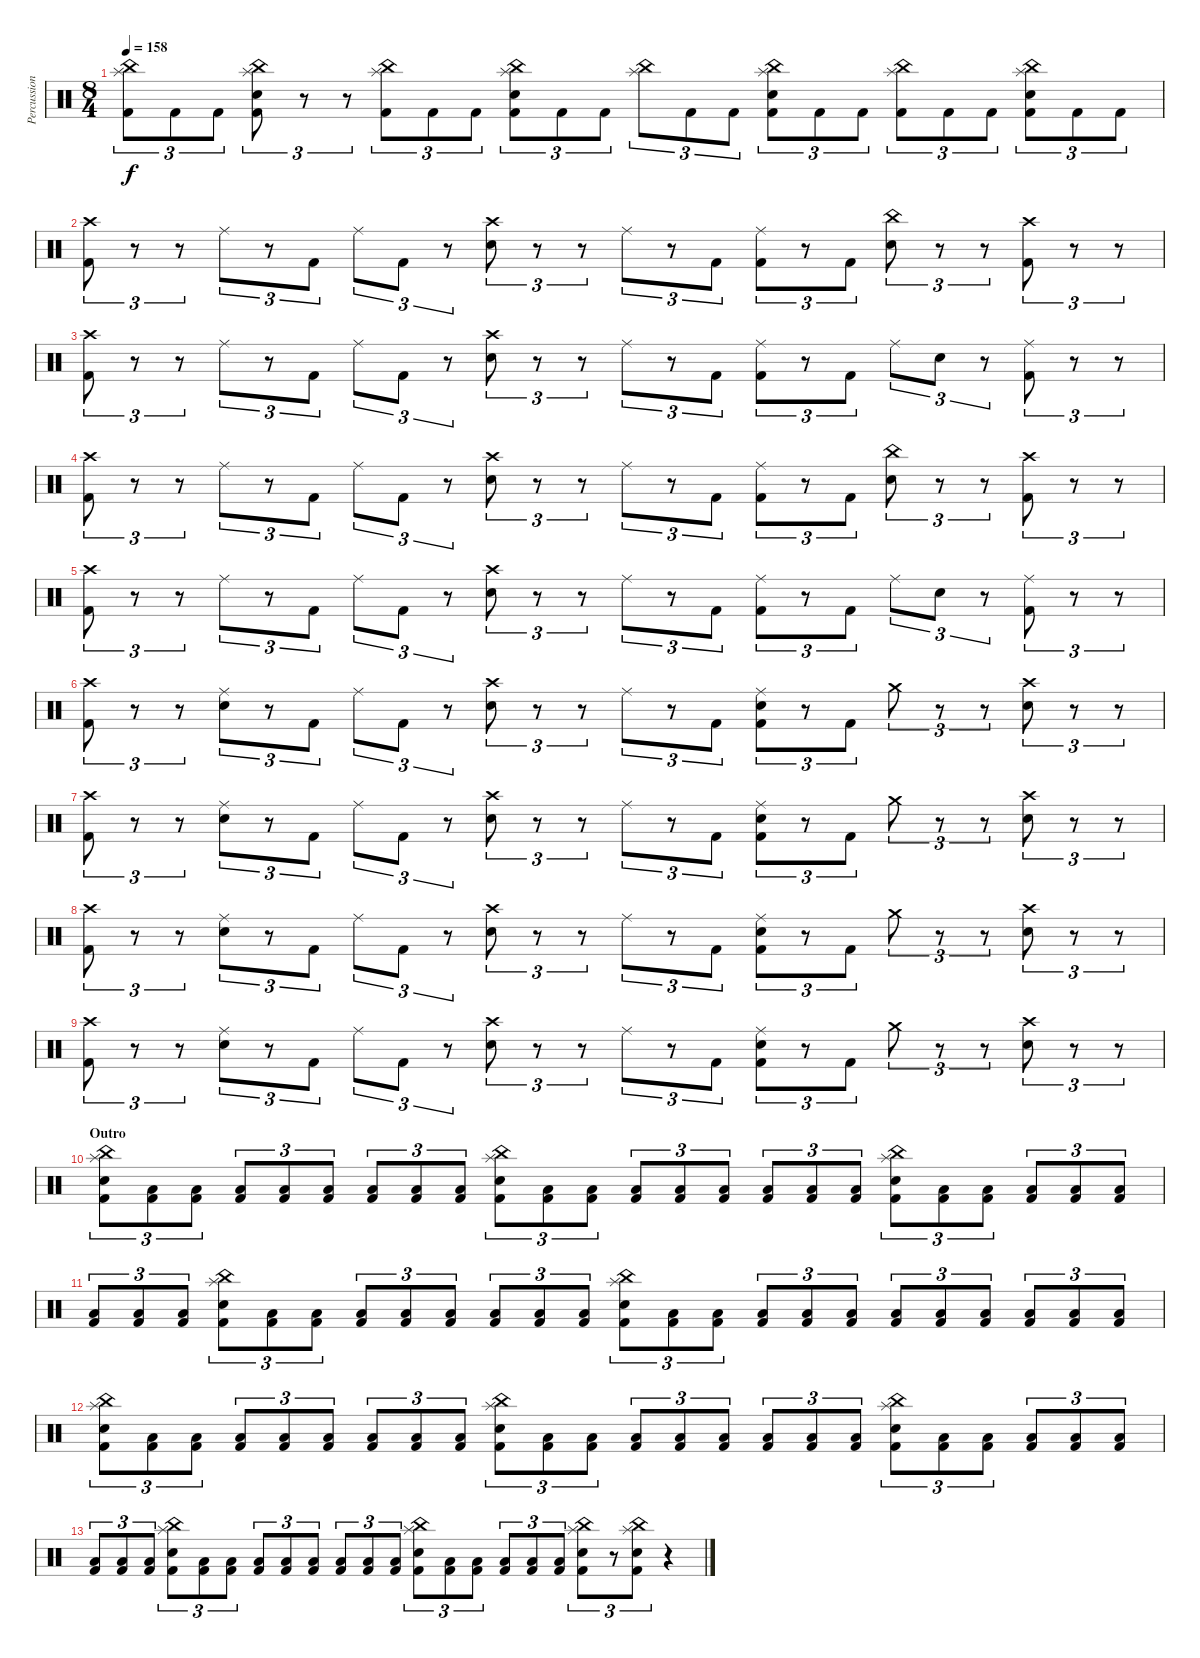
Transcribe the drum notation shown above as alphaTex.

\track ("Percussion" "Percussion") {instrument percussion}
\staff {score}
\articulation defaults
\ts (8 4)
\tempo 158
\clef neutral
\ks c
("China (hit)" "Splash (hit)" "Kick (hit) 2").8{tu (3 2) dy f} "Kick (hit) 2".8{tu (3 2)} "Kick (hit) 2".8{tu (3 2)} ("China (hit)" "Splash (hit)" "Electric Snare (hit)" "Kick (hit) 2").8{tu (3 2)} r.8{tu (3 2)} r.8{tu (3 2)} ("China (hit)" "Splash (hit)" "Kick (hit) 2").8{tu (3 2)} "Kick (hit) 2".8{tu (3 2)} "Kick (hit) 2".8{tu (3 2)} ("China (hit)" "Splash (hit)" "Electric Snare (hit)" "Kick (hit) 2").8{tu (3 2)} "Kick (hit) 2".8{tu (3 2)} "Kick (hit) 2".8{tu (3 2)} ("China (hit)" "Splash (hit)").8{tu (3 2)} "Kick (hit) 2".8{tu (3 2)} "Kick (hit) 2".8{tu (3 2)} ("China (hit)" "Splash (hit)" "Electric Snare (hit)" "Kick (hit) 2").8{tu (3 2)} "Kick (hit) 2".8{tu (3 2)} "Kick (hit) 2".8{tu (3 2)} ("China (hit)" "Splash (hit)" "Kick (hit) 2").8{tu (3 2)} "Kick (hit) 2".8{tu (3 2)} "Kick (hit) 2".8{tu (3 2)} ("China (hit)" "Splash (hit)" "Electric Snare (hit)" "Kick (hit) 2").8{tu (3 2)} "Kick (hit) 2".8{tu (3 2)} "Kick (hit) 2".8{tu (3 2)} |
("Crash high (hit)" "Kick (hit) 2").8{tu (3 2)} r.8{tu (3 2)} r.8{tu (3 2)} "Ride (middle)".8{tu (3 2)} r.8{tu (3 2)} "Kick (hit) 2".8{tu (3 2)} "Ride (middle)".8{tu (3 2)} "Kick (hit) 2".8{tu (3 2)} r.8{tu (3 2)} ("Crash high (hit)" "Electric Snare (hit)").8{tu (3 2)} r.8{tu (3 2)} r.8{tu (3 2)} "Ride (middle)".8{tu (3 2)} r.8{tu (3 2)} "Kick (hit) 2".8{tu (3 2)} ("Ride (middle)" "Kick (hit) 2").8{tu (3 2)} r.8{tu (3 2)} "Kick (hit) 2".8{tu (3 2)} ("China (hit)" "Electric Snare (hit)").8{tu (3 2)} r.8{tu (3 2)} r.8{tu (3 2)} ("Crash high (hit)" "Kick (hit) 2").8{tu (3 2)} r.8{tu (3 2)} r.8{tu (3 2)} |
("Crash high (hit)" "Kick (hit) 2").8{tu (3 2)} r.8{tu (3 2)} r.8{tu (3 2)} "Ride (middle)".8{tu (3 2)} r.8{tu (3 2)} "Kick (hit) 2".8{tu (3 2)} "Ride (middle)".8{tu (3 2)} "Kick (hit) 2".8{tu (3 2)} r.8{tu (3 2)} ("Crash high (hit)" "Electric Snare (hit)").8{tu (3 2)} r.8{tu (3 2)} r.8{tu (3 2)} "Ride (middle)".8{tu (3 2)} r.8{tu (3 2)} "Kick (hit) 2".8{tu (3 2)} ("Ride (middle)" "Kick (hit) 2").8{tu (3 2)} r.8{tu (3 2)} "Kick (hit) 2".8{tu (3 2)} "Ride (middle)".8{tu (3 2)} "Electric Snare (hit)".8{tu (3 2)} r.8{tu (3 2)} ("Ride (middle)" "Kick (hit) 2").8{tu (3 2)} r.8{tu (3 2)} r.8{tu (3 2)} |
("Crash high (hit)" "Kick (hit) 2").8{tu (3 2)} r.8{tu (3 2)} r.8{tu (3 2)} "Ride (middle)".8{tu (3 2)} r.8{tu (3 2)} "Kick (hit) 2".8{tu (3 2)} "Ride (middle)".8{tu (3 2)} "Kick (hit) 2".8{tu (3 2)} r.8{tu (3 2)} ("Crash high (hit)" "Electric Snare (hit)").8{tu (3 2)} r.8{tu (3 2)} r.8{tu (3 2)} "Ride (middle)".8{tu (3 2)} r.8{tu (3 2)} "Kick (hit) 2".8{tu (3 2)} ("Ride (middle)" "Kick (hit) 2").8{tu (3 2)} r.8{tu (3 2)} "Kick (hit) 2".8{tu (3 2)} ("China (hit)" "Electric Snare (hit)").8{tu (3 2)} r.8{tu (3 2)} r.8{tu (3 2)} ("Crash high (hit)" "Kick (hit) 2").8{tu (3 2)} r.8{tu (3 2)} r.8{tu (3 2)} |
("Crash high (hit)" "Kick (hit) 2").8{tu (3 2)} r.8{tu (3 2)} r.8{tu (3 2)} "Ride (middle)".8{tu (3 2)} r.8{tu (3 2)} "Kick (hit) 2".8{tu (3 2)} "Ride (middle)".8{tu (3 2)} "Kick (hit) 2".8{tu (3 2)} r.8{tu (3 2)} ("Crash high (hit)" "Electric Snare (hit)").8{tu (3 2)} r.8{tu (3 2)} r.8{tu (3 2)} "Ride (middle)".8{tu (3 2)} r.8{tu (3 2)} "Kick (hit) 2".8{tu (3 2)} ("Ride (middle)" "Kick (hit) 2").8{tu (3 2)} r.8{tu (3 2)} "Kick (hit) 2".8{tu (3 2)} "Ride (middle)".8{tu (3 2)} "Electric Snare (hit)".8{tu (3 2)} r.8{tu (3 2)} ("Ride (middle)" "Kick (hit) 2").8{tu (3 2)} r.8{tu (3 2)} r.8{tu (3 2)} |
("Crash high (hit)" "Kick (hit) 2").8{tu (3 2)} r.8{tu (3 2)} r.8{tu (3 2)} ("Ride (middle)" "Electric Snare (hit)").8{tu (3 2)} r.8{tu (3 2)} "Kick (hit) 2".8{tu (3 2)} "Ride (middle)".8{tu (3 2)} "Kick (hit) 2".8{tu (3 2)} r.8{tu (3 2)} ("Crash high (hit)" "Electric Snare (hit)").8{tu (3 2)} r.8{tu (3 2)} r.8{tu (3 2)} "Ride (middle)".8{tu (3 2)} r.8{tu (3 2)} "Kick (hit) 2".8{tu (3 2)} ("Ride (middle)" "Electric Snare (hit)" "Kick (hit) 2").8{tu (3 2)} r.8{tu (3 2)} "Kick (hit) 2".8{tu (3 2)} "Crash medium (hit)".8{tu (3 2)} r.8{tu (3 2)} r.8{tu (3 2)} ("Crash high (hit)" "Electric Snare (hit)").8{tu (3 2)} r.8{tu (3 2)} r.8{tu (3 2)} |
("Crash high (hit)" "Kick (hit) 2").8{tu (3 2)} r.8{tu (3 2)} r.8{tu (3 2)} ("Ride (middle)" "Electric Snare (hit)").8{tu (3 2)} r.8{tu (3 2)} "Kick (hit) 2".8{tu (3 2)} "Ride (middle)".8{tu (3 2)} "Kick (hit) 2".8{tu (3 2)} r.8{tu (3 2)} ("Crash high (hit)" "Electric Snare (hit)").8{tu (3 2)} r.8{tu (3 2)} r.8{tu (3 2)} "Ride (middle)".8{tu (3 2)} r.8{tu (3 2)} "Kick (hit) 2".8{tu (3 2)} ("Ride (middle)" "Electric Snare (hit)" "Kick (hit) 2").8{tu (3 2)} r.8{tu (3 2)} "Kick (hit) 2".8{tu (3 2)} "Crash medium (hit)".8{tu (3 2)} r.8{tu (3 2)} r.8{tu (3 2)} ("Crash high (hit)" "Electric Snare (hit)").8{tu (3 2)} r.8{tu (3 2)} r.8{tu (3 2)} |
("Crash high (hit)" "Kick (hit) 2").8{tu (3 2)} r.8{tu (3 2)} r.8{tu (3 2)} ("Ride (middle)" "Electric Snare (hit)").8{tu (3 2)} r.8{tu (3 2)} "Kick (hit) 2".8{tu (3 2)} "Ride (middle)".8{tu (3 2)} "Kick (hit) 2".8{tu (3 2)} r.8{tu (3 2)} ("Crash high (hit)" "Electric Snare (hit)").8{tu (3 2)} r.8{tu (3 2)} r.8{tu (3 2)} "Ride (middle)".8{tu (3 2)} r.8{tu (3 2)} "Kick (hit) 2".8{tu (3 2)} ("Ride (middle)" "Electric Snare (hit)" "Kick (hit) 2").8{tu (3 2)} r.8{tu (3 2)} "Kick (hit) 2".8{tu (3 2)} "Crash medium (hit)".8{tu (3 2)} r.8{tu (3 2)} r.8{tu (3 2)} ("Crash high (hit)" "Electric Snare (hit)").8{tu (3 2)} r.8{tu (3 2)} r.8{tu (3 2)} |
("Crash high (hit)" "Kick (hit) 2").8{tu (3 2)} r.8{tu (3 2)} r.8{tu (3 2)} ("Ride (middle)" "Electric Snare (hit)").8{tu (3 2)} r.8{tu (3 2)} "Kick (hit) 2".8{tu (3 2)} "Ride (middle)".8{tu (3 2)} "Kick (hit) 2".8{tu (3 2)} r.8{tu (3 2)} ("Crash high (hit)" "Electric Snare (hit)").8{tu (3 2)} r.8{tu (3 2)} r.8{tu (3 2)} "Ride (middle)".8{tu (3 2)} r.8{tu (3 2)} "Kick (hit) 2".8{tu (3 2)} ("Ride (middle)" "Electric Snare (hit)" "Kick (hit) 2").8{tu (3 2)} r.8{tu (3 2)} "Kick (hit) 2".8{tu (3 2)} "Crash medium (hit)".8{tu (3 2)} r.8{tu (3 2)} r.8{tu (3 2)} ("Crash high (hit)" "Electric Snare (hit)").8{tu (3 2)} r.8{tu (3 2)} r.8{tu (3 2)} |
\section ("" "Outro")
("China (hit)" "Splash (hit)" "Electric Snare (hit)" "Kick (hit) 2").8{tu (3 2)} ("Low Floor Tom (hit)" "Kick (hit) 2").8{tu (3 2)} ("Low Floor Tom (hit)" "Kick (hit) 2").8{tu (3 2)} ("Low Floor Tom (hit)" "Kick (hit) 2").8{tu (3 2)} ("Low Floor Tom (hit)" "Kick (hit) 2").8{tu (3 2)} ("Low Floor Tom (hit)" "Kick (hit) 2").8{tu (3 2)} ("Low Floor Tom (hit)" "Kick (hit) 2").8{tu (3 2)} ("Low Floor Tom (hit)" "Kick (hit) 2").8{tu (3 2)} ("Low Floor Tom (hit)" "Kick (hit) 2").8{tu (3 2)} ("China (hit)" "Splash (hit)" "Electric Snare (hit)" "Kick (hit) 2").8{tu (3 2)} ("Low Floor Tom (hit)" "Kick (hit) 2").8{tu (3 2)} ("Low Floor Tom (hit)" "Kick (hit) 2").8{tu (3 2)} ("Low Floor Tom (hit)" "Kick (hit) 2").8{tu (3 2)} ("Low Floor Tom (hit)" "Kick (hit) 2").8{tu (3 2)} ("Low Floor Tom (hit)" "Kick (hit) 2").8{tu (3 2)} ("Low Floor Tom (hit)" "Kick (hit) 2").8{tu (3 2)} ("Low Floor Tom (hit)" "Kick (hit) 2").8{tu (3 2)} ("Low Floor Tom (hit)" "Kick (hit) 2").8{tu (3 2)} ("China (hit)" "Splash (hit)" "Electric Snare (hit)" "Kick (hit) 2").8{tu (3 2)} ("Low Floor Tom (hit)" "Kick (hit) 2").8{tu (3 2)} ("Low Floor Tom (hit)" "Kick (hit) 2").8{tu (3 2)} ("Low Floor Tom (hit)" "Kick (hit) 2").8{tu (3 2)} ("Low Floor Tom (hit)" "Kick (hit) 2").8{tu (3 2)} ("Low Floor Tom (hit)" "Kick (hit) 2").8{tu (3 2)} |
("Low Floor Tom (hit)" "Kick (hit) 2").8{tu (3 2)} ("Low Floor Tom (hit)" "Kick (hit) 2").8{tu (3 2)} ("Low Floor Tom (hit)" "Kick (hit) 2").8{tu (3 2)} ("China (hit)" "Splash (hit)" "Electric Snare (hit)" "Kick (hit) 2").8{tu (3 2)} ("Low Floor Tom (hit)" "Kick (hit) 2").8{tu (3 2)} ("Low Floor Tom (hit)" "Kick (hit) 2").8{tu (3 2)} ("Low Floor Tom (hit)" "Kick (hit) 2").8{tu (3 2)} ("Low Floor Tom (hit)" "Kick (hit) 2").8{tu (3 2)} ("Low Floor Tom (hit)" "Kick (hit) 2").8{tu (3 2)} ("Low Floor Tom (hit)" "Kick (hit) 2").8{tu (3 2)} ("Low Floor Tom (hit)" "Kick (hit) 2").8{tu (3 2)} ("Low Floor Tom (hit)" "Kick (hit) 2").8{tu (3 2)} ("China (hit)" "Splash (hit)" "Electric Snare (hit)" "Kick (hit) 2").8{tu (3 2)} ("Low Floor Tom (hit)" "Kick (hit) 2").8{tu (3 2)} ("Low Floor Tom (hit)" "Kick (hit) 2").8{tu (3 2)} ("Low Floor Tom (hit)" "Kick (hit) 2").8{tu (3 2)} ("Low Floor Tom (hit)" "Kick (hit) 2").8{tu (3 2)} ("Low Floor Tom (hit)" "Kick (hit) 2").8{tu (3 2)} ("Low Floor Tom (hit)" "Kick (hit) 2").8{tu (3 2)} ("Low Floor Tom (hit)" "Kick (hit) 2").8{tu (3 2)} ("Low Floor Tom (hit)" "Kick (hit) 2").8{tu (3 2)} ("Low Floor Tom (hit)" "Kick (hit) 2").8{tu (3 2)} ("Low Floor Tom (hit)" "Kick (hit) 2").8{tu (3 2)} ("Low Floor Tom (hit)" "Kick (hit) 2").8{tu (3 2)} |
("China (hit)" "Splash (hit)" "Electric Snare (hit)" "Kick (hit) 2").8{tu (3 2)} ("Low Floor Tom (hit)" "Kick (hit) 2").8{tu (3 2)} ("Low Floor Tom (hit)" "Kick (hit) 2").8{tu (3 2)} ("Low Floor Tom (hit)" "Kick (hit) 2").8{tu (3 2)} ("Low Floor Tom (hit)" "Kick (hit) 2").8{tu (3 2)} ("Low Floor Tom (hit)" "Kick (hit) 2").8{tu (3 2)} ("Low Floor Tom (hit)" "Kick (hit) 2").8{tu (3 2)} ("Low Floor Tom (hit)" "Kick (hit) 2").8{tu (3 2)} ("Low Floor Tom (hit)" "Kick (hit) 2").8{tu (3 2)} ("China (hit)" "Splash (hit)" "Electric Snare (hit)" "Kick (hit) 2").8{tu (3 2)} ("Low Floor Tom (hit)" "Kick (hit) 2").8{tu (3 2)} ("Low Floor Tom (hit)" "Kick (hit) 2").8{tu (3 2)} ("Low Floor Tom (hit)" "Kick (hit) 2").8{tu (3 2)} ("Low Floor Tom (hit)" "Kick (hit) 2").8{tu (3 2)} ("Low Floor Tom (hit)" "Kick (hit) 2").8{tu (3 2)} ("Low Floor Tom (hit)" "Kick (hit) 2").8{tu (3 2)} ("Low Floor Tom (hit)" "Kick (hit) 2").8{tu (3 2)} ("Low Floor Tom (hit)" "Kick (hit) 2").8{tu (3 2)} ("China (hit)" "Splash (hit)" "Electric Snare (hit)" "Kick (hit) 2").8{tu (3 2)} ("Low Floor Tom (hit)" "Kick (hit) 2").8{tu (3 2)} ("Low Floor Tom (hit)" "Kick (hit) 2").8{tu (3 2)} ("Low Floor Tom (hit)" "Kick (hit) 2").8{tu (3 2)} ("Low Floor Tom (hit)" "Kick (hit) 2").8{tu (3 2)} ("Low Floor Tom (hit)" "Kick (hit) 2").8{tu (3 2)} |
("Low Floor Tom (hit)" "Kick (hit) 2").8{tu (3 2)} ("Low Floor Tom (hit)" "Kick (hit) 2").8{tu (3 2)} ("Low Floor Tom (hit)" "Kick (hit) 2").8{tu (3 2)} ("China (hit)" "Splash (hit)" "Electric Snare (hit)" "Kick (hit) 2").8{tu (3 2)} ("Low Floor Tom (hit)" "Kick (hit) 2").8{tu (3 2)} ("Low Floor Tom (hit)" "Kick (hit) 2").8{tu (3 2)} ("Low Floor Tom (hit)" "Kick (hit) 2").8{tu (3 2)} ("Low Floor Tom (hit)" "Kick (hit) 2").8{tu (3 2)} ("Low Floor Tom (hit)" "Kick (hit) 2").8{tu (3 2)} ("Low Floor Tom (hit)" "Kick (hit) 2").8{tu (3 2)} ("Low Floor Tom (hit)" "Kick (hit) 2").8{tu (3 2)} ("Low Floor Tom (hit)" "Kick (hit) 2").8{tu (3 2)} ("China (hit)" "Splash (hit)" "Electric Snare (hit)" "Kick (hit) 2").8{tu (3 2)} ("Low Floor Tom (hit)" "Kick (hit) 2").8{tu (3 2)} ("Low Floor Tom (hit)" "Kick (hit) 2").8{tu (3 2)} ("Low Floor Tom (hit)" "Kick (hit) 2").8{tu (3 2)} ("Low Floor Tom (hit)" "Kick (hit) 2").8{tu (3 2)} ("Low Floor Tom (hit)" "Kick (hit) 2").8{tu (3 2)} ("China (hit)" "Splash (hit)" "Electric Snare (hit)" "Kick (hit) 2").8{tu (3 2)} r.8{tu (3 2)} ("China (hit)" "Splash (hit)" "Electric Snare (hit)" "Kick (hit) 2").8{tu (3 2)} r.4
